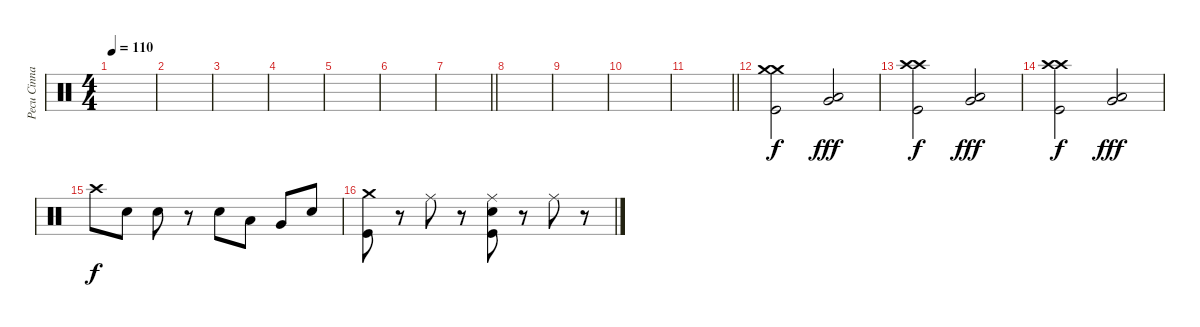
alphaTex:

\track ("Pecu Cinnari" "Pecu Cinna") {instrument percussion}
\staff {score}
\articulation defaults
\ts (4 4)
\tempo 110
\clef neutral
\ks c
|
|
|
|
|
|
\barLineRight lightlight
|
\section ("" "")
|
|
|
\barLineRight lightlight
|
\section ("" "")
("Crash medium (hit)" "Crash medium (hit)" "Kick (hit)").2 ("Very Low Tom (hit)" "Low Tom (hit)").2{dy fff} |
("Crash high (hit)" "Crash high (hit)" "Kick (hit)").2{dy f} ("Low Floor Tom (hit)" "Very Low Tom (hit)").2{dy fff} |
("Crash high (hit)" "Crash high (hit)" "Kick (hit)").2{dy f} ("Low Floor Tom (hit)" "Very Low Tom (hit)").2{dy fff} |
"Crash high (hit)".8{dy f} "Snare (hit) 2".8 "Snare (hit) 2".8 r.8 "Snare (hit) 2".8 "Low Tom (hit)".8 "Very Low Tom (hit)".8 "Snare (hit) 2".8 |
("Crash medium (hit)" "Kick (hit)").8 r.8 "Ride (middle)".8 r.8 ("Ride (middle)" "Snare (hit) 2" "Kick (hit)").8 r.8 "Ride (middle)".8 r.8
